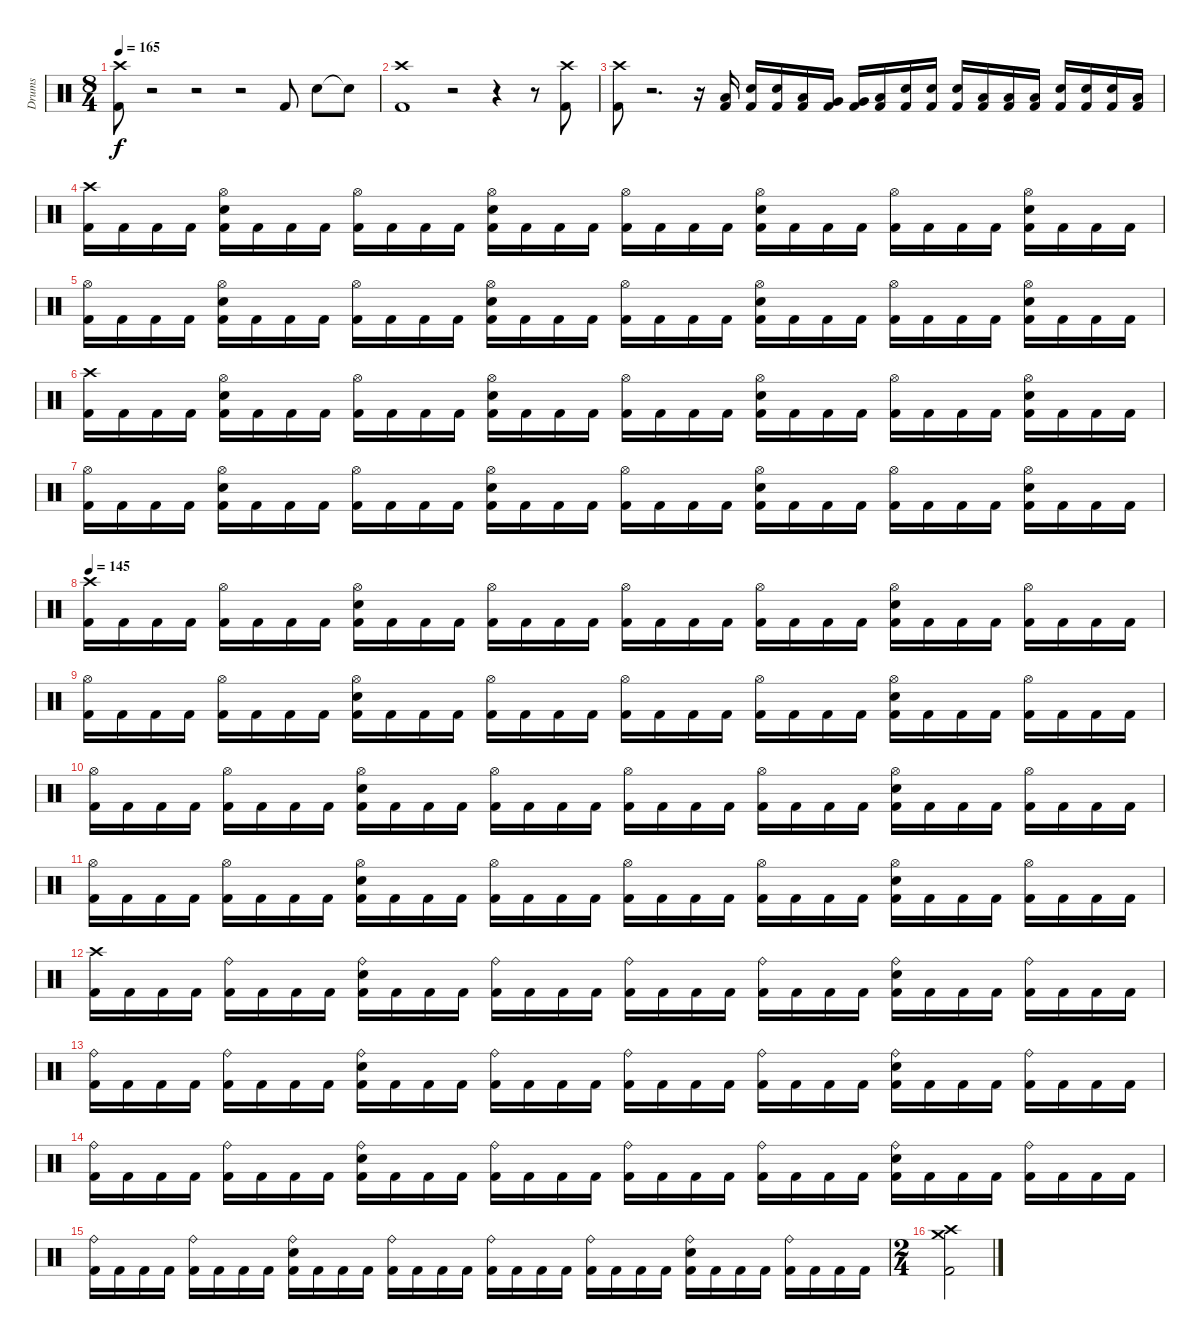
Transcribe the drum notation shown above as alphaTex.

\track ("Drums" "Drums") {instrument percussion}
\staff {score}
\articulation defaults
\ts (8 4)
\tempo 165
\clef neutral
\ks c
("Crash high (hit)" "Kick (hit) 2").8{dy f} r.2 r.2 r.2 "Kick (hit) 2".8 "Electric Snare (hit)".8 "Snare (hit)"{t}.8 |
("Crash high (hit)" "Kick (hit) 2").1 r.2 r.4 r.8 ("Crash high (hit)" "Kick (hit) 2").8 |
("Crash high (hit)" "Kick (hit) 2").8 r.2{d} r.16 ("Low Tom (hit)" "Kick (hit) 2").16 ("Electric Snare (hit)" "Kick (hit) 2").16 ("Electric Snare (hit)" "Kick (hit) 2").16 ("Low Tom (hit)" "Kick (hit) 2").16 ("Very Low Tom (hit)" "Kick (hit) 2").16 ("Very Low Tom (hit)" "Kick (hit) 2").16 ("Low Floor Tom (hit)" "Kick (hit) 2").16 ("Electric Snare (hit)" "Kick (hit) 2").16 ("Electric Snare (hit)" "Kick (hit) 2").16 ("Electric Snare (hit)" "Kick (hit) 2").16 ("Low Tom (hit)" "Kick (hit) 2").16 ("Low Tom (hit)" "Kick (hit) 2").16 ("Low Tom (hit)" "Kick (hit) 2").16 ("Electric Snare (hit)" "Kick (hit) 2").16 ("Electric Snare (hit)" "Kick (hit) 2").16 ("Electric Snare (hit)" "Kick (hit) 2").16 ("Low Tom (hit)" "Kick (hit) 2").16 |
("Crash high (hit)" "Kick (hit) 2").16 "Kick (hit) 2".16 "Kick (hit) 2".16 "Kick (hit) 2".16 ("Hi-Hat (open)" "Electric Snare (hit)" "Kick (hit) 2").16 "Kick (hit) 2".16 "Kick (hit) 2".16 "Kick (hit) 2".16 ("Hi-Hat (open)" "Kick (hit) 2").16 "Kick (hit) 2".16 "Kick (hit) 2".16 "Kick (hit) 2".16 ("Hi-Hat (open)" "Electric Snare (hit)" "Kick (hit) 2").16 "Kick (hit) 2".16 "Kick (hit) 2".16 "Kick (hit) 2".16 ("Hi-Hat (open)" "Kick (hit) 2").16 "Kick (hit) 2".16 "Kick (hit) 2".16 "Kick (hit) 2".16 ("Hi-Hat (open)" "Electric Snare (hit)" "Kick (hit) 2").16 "Kick (hit) 2".16 "Kick (hit) 2".16 "Kick (hit) 2".16 ("Hi-Hat (open)" "Kick (hit) 2").16 "Kick (hit) 2".16 "Kick (hit) 2".16 "Kick (hit) 2".16 ("Hi-Hat (open)" "Electric Snare (hit)" "Kick (hit) 2").16 "Kick (hit) 2".16 "Kick (hit) 2".16 "Kick (hit) 2".16 |
("Hi-Hat (open)" "Kick (hit) 2").16 "Kick (hit) 2".16 "Kick (hit) 2".16 "Kick (hit) 2".16 ("Hi-Hat (open)" "Electric Snare (hit)" "Kick (hit) 2").16 "Kick (hit) 2".16 "Kick (hit) 2".16 "Kick (hit) 2".16 ("Hi-Hat (open)" "Kick (hit) 2").16 "Kick (hit) 2".16 "Kick (hit) 2".16 "Kick (hit) 2".16 ("Hi-Hat (open)" "Electric Snare (hit)" "Kick (hit) 2").16 "Kick (hit) 2".16 "Kick (hit) 2".16 "Kick (hit) 2".16 ("Hi-Hat (open)" "Kick (hit) 2").16 "Kick (hit) 2".16 "Kick (hit) 2".16 "Kick (hit) 2".16 ("Hi-Hat (open)" "Electric Snare (hit)" "Kick (hit) 2").16 "Kick (hit) 2".16 "Kick (hit) 2".16 "Kick (hit) 2".16 ("Hi-Hat (open)" "Kick (hit) 2").16 "Kick (hit) 2".16 "Kick (hit) 2".16 "Kick (hit) 2".16 ("Hi-Hat (open)" "Electric Snare (hit)" "Kick (hit) 2").16 "Kick (hit) 2".16 "Kick (hit) 2".16 "Kick (hit) 2".16 |
("Crash high (hit)" "Kick (hit) 2").16 "Kick (hit) 2".16 "Kick (hit) 2".16 "Kick (hit) 2".16 ("Hi-Hat (open)" "Electric Snare (hit)" "Kick (hit) 2").16 "Kick (hit) 2".16 "Kick (hit) 2".16 "Kick (hit) 2".16 ("Hi-Hat (open)" "Kick (hit) 2").16 "Kick (hit) 2".16 "Kick (hit) 2".16 "Kick (hit) 2".16 ("Hi-Hat (open)" "Electric Snare (hit)" "Kick (hit) 2").16 "Kick (hit) 2".16 "Kick (hit) 2".16 "Kick (hit) 2".16 ("Hi-Hat (open)" "Kick (hit) 2").16 "Kick (hit) 2".16 "Kick (hit) 2".16 "Kick (hit) 2".16 ("Hi-Hat (open)" "Electric Snare (hit)" "Kick (hit) 2").16 "Kick (hit) 2".16 "Kick (hit) 2".16 "Kick (hit) 2".16 ("Hi-Hat (open)" "Kick (hit) 2").16 "Kick (hit) 2".16 "Kick (hit) 2".16 "Kick (hit) 2".16 ("Hi-Hat (open)" "Electric Snare (hit)" "Kick (hit) 2").16 "Kick (hit) 2".16 "Kick (hit) 2".16 "Kick (hit) 2".16 |
("Hi-Hat (open)" "Kick (hit) 2").16 "Kick (hit) 2".16 "Kick (hit) 2".16 "Kick (hit) 2".16 ("Hi-Hat (open)" "Electric Snare (hit)" "Kick (hit) 2").16 "Kick (hit) 2".16 "Kick (hit) 2".16 "Kick (hit) 2".16 ("Hi-Hat (open)" "Kick (hit) 2").16 "Kick (hit) 2".16 "Kick (hit) 2".16 "Kick (hit) 2".16 ("Hi-Hat (open)" "Electric Snare (hit)" "Kick (hit) 2").16 "Kick (hit) 2".16 "Kick (hit) 2".16 "Kick (hit) 2".16 ("Hi-Hat (open)" "Kick (hit) 2").16 "Kick (hit) 2".16 "Kick (hit) 2".16 "Kick (hit) 2".16 ("Hi-Hat (open)" "Electric Snare (hit)" "Kick (hit) 2").16 "Kick (hit) 2".16 "Kick (hit) 2".16 "Kick (hit) 2".16 ("Hi-Hat (open)" "Kick (hit) 2").16 "Kick (hit) 2".16 "Kick (hit) 2".16 "Kick (hit) 2".16 ("Hi-Hat (open)" "Electric Snare (hit)" "Kick (hit) 2").16 "Kick (hit) 2".16 "Kick (hit) 2".16 "Kick (hit) 2".16 |
\tempo 145
("Crash high (hit)" "Kick (hit) 2").16 "Kick (hit) 2".16 "Kick (hit) 2".16 "Kick (hit) 2".16 ("Hi-Hat (open)" "Kick (hit) 2").16 "Kick (hit) 2".16 "Kick (hit) 2".16 "Kick (hit) 2".16 ("Hi-Hat (open)" "Electric Snare (hit)" "Kick (hit) 2").16 "Kick (hit) 2".16 "Kick (hit) 2".16 "Kick (hit) 2".16 ("Hi-Hat (open)" "Kick (hit) 2").16 "Kick (hit) 2".16 "Kick (hit) 2".16 "Kick (hit) 2".16 ("Hi-Hat (open)" "Kick (hit) 2").16 "Kick (hit) 2".16 "Kick (hit) 2".16 "Kick (hit) 2".16 ("Hi-Hat (open)" "Kick (hit) 2").16 "Kick (hit) 2".16 "Kick (hit) 2".16 "Kick (hit) 2".16 ("Hi-Hat (open)" "Electric Snare (hit)" "Kick (hit) 2").16 "Kick (hit) 2".16 "Kick (hit) 2".16 "Kick (hit) 2".16 ("Hi-Hat (open)" "Kick (hit) 2").16 "Kick (hit) 2".16 "Kick (hit) 2".16 "Kick (hit) 2".16 |
("Hi-Hat (open)" "Kick (hit) 2").16 "Kick (hit) 2".16 "Kick (hit) 2".16 "Kick (hit) 2".16 ("Hi-Hat (open)" "Kick (hit) 2").16 "Kick (hit) 2".16 "Kick (hit) 2".16 "Kick (hit) 2".16 ("Hi-Hat (open)" "Electric Snare (hit)" "Kick (hit) 2").16 "Kick (hit) 2".16 "Kick (hit) 2".16 "Kick (hit) 2".16 ("Hi-Hat (open)" "Kick (hit) 2").16 "Kick (hit) 2".16 "Kick (hit) 2".16 "Kick (hit) 2".16 ("Hi-Hat (open)" "Kick (hit) 2").16 "Kick (hit) 2".16 "Kick (hit) 2".16 "Kick (hit) 2".16 ("Hi-Hat (open)" "Kick (hit) 2").16 "Kick (hit) 2".16 "Kick (hit) 2".16 "Kick (hit) 2".16 ("Hi-Hat (open)" "Electric Snare (hit)" "Kick (hit) 2").16 "Kick (hit) 2".16 "Kick (hit) 2".16 "Kick (hit) 2".16 ("Hi-Hat (open)" "Kick (hit) 2").16 "Kick (hit) 2".16 "Kick (hit) 2".16 "Kick (hit) 2".16 |
("Hi-Hat (open)" "Kick (hit) 2").16 "Kick (hit) 2".16 "Kick (hit) 2".16 "Kick (hit) 2".16 ("Hi-Hat (open)" "Kick (hit) 2").16 "Kick (hit) 2".16 "Kick (hit) 2".16 "Kick (hit) 2".16 ("Hi-Hat (open)" "Electric Snare (hit)" "Kick (hit) 2").16 "Kick (hit) 2".16 "Kick (hit) 2".16 "Kick (hit) 2".16 ("Hi-Hat (open)" "Kick (hit) 2").16 "Kick (hit) 2".16 "Kick (hit) 2".16 "Kick (hit) 2".16 ("Hi-Hat (open)" "Kick (hit) 2").16 "Kick (hit) 2".16 "Kick (hit) 2".16 "Kick (hit) 2".16 ("Hi-Hat (open)" "Kick (hit) 2").16 "Kick (hit) 2".16 "Kick (hit) 2".16 "Kick (hit) 2".16 ("Hi-Hat (open)" "Electric Snare (hit)" "Kick (hit) 2").16 "Kick (hit) 2".16 "Kick (hit) 2".16 "Kick (hit) 2".16 ("Hi-Hat (open)" "Kick (hit) 2").16 "Kick (hit) 2".16 "Kick (hit) 2".16 "Kick (hit) 2".16 |
("Hi-Hat (open)" "Kick (hit) 2").16 "Kick (hit) 2".16 "Kick (hit) 2".16 "Kick (hit) 2".16 ("Hi-Hat (open)" "Kick (hit) 2").16 "Kick (hit) 2".16 "Kick (hit) 2".16 "Kick (hit) 2".16 ("Hi-Hat (open)" "Electric Snare (hit)" "Kick (hit) 2").16 "Kick (hit) 2".16 "Kick (hit) 2".16 "Kick (hit) 2".16 ("Hi-Hat (open)" "Kick (hit) 2").16 "Kick (hit) 2".16 "Kick (hit) 2".16 "Kick (hit) 2".16 ("Hi-Hat (open)" "Kick (hit) 2").16 "Kick (hit) 2".16 "Kick (hit) 2".16 "Kick (hit) 2".16 ("Hi-Hat (open)" "Kick (hit) 2").16 "Kick (hit) 2".16 "Kick (hit) 2".16 "Kick (hit) 2".16 ("Hi-Hat (open)" "Electric Snare (hit)" "Kick (hit) 2").16 "Kick (hit) 2".16 "Kick (hit) 2".16 "Kick (hit) 2".16 ("Hi-Hat (open)" "Kick (hit) 2").16 "Kick (hit) 2".16 "Kick (hit) 2".16 "Kick (hit) 2".16 |
("Crash high (hit)" "Kick (hit) 2").16 "Kick (hit) 2".16 "Kick (hit) 2".16 "Kick (hit) 2".16 ("Ride (bell)" "Kick (hit) 2").16 "Kick (hit) 2".16 "Kick (hit) 2".16 "Kick (hit) 2".16 ("Ride (bell)" "Electric Snare (hit)" "Kick (hit) 2").16 "Kick (hit) 2".16 "Kick (hit) 2".16 "Kick (hit) 2".16 ("Ride (bell)" "Kick (hit) 2").16 "Kick (hit) 2".16 "Kick (hit) 2".16 "Kick (hit) 2".16 ("Ride (bell)" "Kick (hit) 2").16 "Kick (hit) 2".16 "Kick (hit) 2".16 "Kick (hit) 2".16 ("Ride (bell)" "Kick (hit) 2").16 "Kick (hit) 2".16 "Kick (hit) 2".16 "Kick (hit) 2".16 ("Ride (bell)" "Electric Snare (hit)" "Kick (hit) 2").16 "Kick (hit) 2".16 "Kick (hit) 2".16 "Kick (hit) 2".16 ("Ride (bell)" "Kick (hit) 2").16 "Kick (hit) 2".16 "Kick (hit) 2".16 "Kick (hit) 2".16 |
("Ride (bell)" "Kick (hit) 2").16 "Kick (hit) 2".16 "Kick (hit) 2".16 "Kick (hit) 2".16 ("Ride (bell)" "Kick (hit) 2").16 "Kick (hit) 2".16 "Kick (hit) 2".16 "Kick (hit) 2".16 ("Ride (bell)" "Electric Snare (hit)" "Kick (hit) 2").16 "Kick (hit) 2".16 "Kick (hit) 2".16 "Kick (hit) 2".16 ("Ride (bell)" "Kick (hit) 2").16 "Kick (hit) 2".16 "Kick (hit) 2".16 "Kick (hit) 2".16 ("Ride (bell)" "Kick (hit) 2").16 "Kick (hit) 2".16 "Kick (hit) 2".16 "Kick (hit) 2".16 ("Ride (bell)" "Kick (hit) 2").16 "Kick (hit) 2".16 "Kick (hit) 2".16 "Kick (hit) 2".16 ("Ride (bell)" "Electric Snare (hit)" "Kick (hit) 2").16 "Kick (hit) 2".16 "Kick (hit) 2".16 "Kick (hit) 2".16 ("Ride (bell)" "Kick (hit) 2").16 "Kick (hit) 2".16 "Kick (hit) 2".16 "Kick (hit) 2".16 |
("Ride (bell)" "Kick (hit) 2").16 "Kick (hit) 2".16 "Kick (hit) 2".16 "Kick (hit) 2".16 ("Ride (bell)" "Kick (hit) 2").16 "Kick (hit) 2".16 "Kick (hit) 2".16 "Kick (hit) 2".16 ("Ride (bell)" "Electric Snare (hit)" "Kick (hit) 2").16 "Kick (hit) 2".16 "Kick (hit) 2".16 "Kick (hit) 2".16 ("Ride (bell)" "Kick (hit) 2").16 "Kick (hit) 2".16 "Kick (hit) 2".16 "Kick (hit) 2".16 ("Ride (bell)" "Kick (hit) 2").16 "Kick (hit) 2".16 "Kick (hit) 2".16 "Kick (hit) 2".16 ("Ride (bell)" "Kick (hit) 2").16 "Kick (hit) 2".16 "Kick (hit) 2".16 "Kick (hit) 2".16 ("Ride (bell)" "Electric Snare (hit)" "Kick (hit) 2").16 "Kick (hit) 2".16 "Kick (hit) 2".16 "Kick (hit) 2".16 ("Ride (bell)" "Kick (hit) 2").16 "Kick (hit) 2".16 "Kick (hit) 2".16 "Kick (hit) 2".16 |
("Ride (bell)" "Kick (hit) 2").16 "Kick (hit) 2".16 "Kick (hit) 2".16 "Kick (hit) 2".16 ("Ride (bell)" "Kick (hit) 2").16 "Kick (hit) 2".16 "Kick (hit) 2".16 "Kick (hit) 2".16 ("Ride (bell)" "Electric Snare (hit)" "Kick (hit) 2").16 "Kick (hit) 2".16 "Kick (hit) 2".16 "Kick (hit) 2".16 ("Ride (bell)" "Kick (hit) 2").16 "Kick (hit) 2".16 "Kick (hit) 2".16 "Kick (hit) 2".16 ("Ride (bell)" "Kick (hit) 2").16 "Kick (hit) 2".16 "Kick (hit) 2".16 "Kick (hit) 2".16 ("Ride (bell)" "Kick (hit) 2").16 "Kick (hit) 2".16 "Kick (hit) 2".16 "Kick (hit) 2".16 ("Ride (bell)" "Electric Snare (hit)" "Kick (hit) 2").16 "Kick (hit) 2".16 "Kick (hit) 2".16 "Kick (hit) 2".16 ("Ride (bell)" "Kick (hit) 2").16 "Kick (hit) 2".16 "Kick (hit) 2".16 "Kick (hit) 2".16 |
\ts (2 4)
("Crash medium (hit)" "Crash high (hit)" "Kick (hit) 2").2
